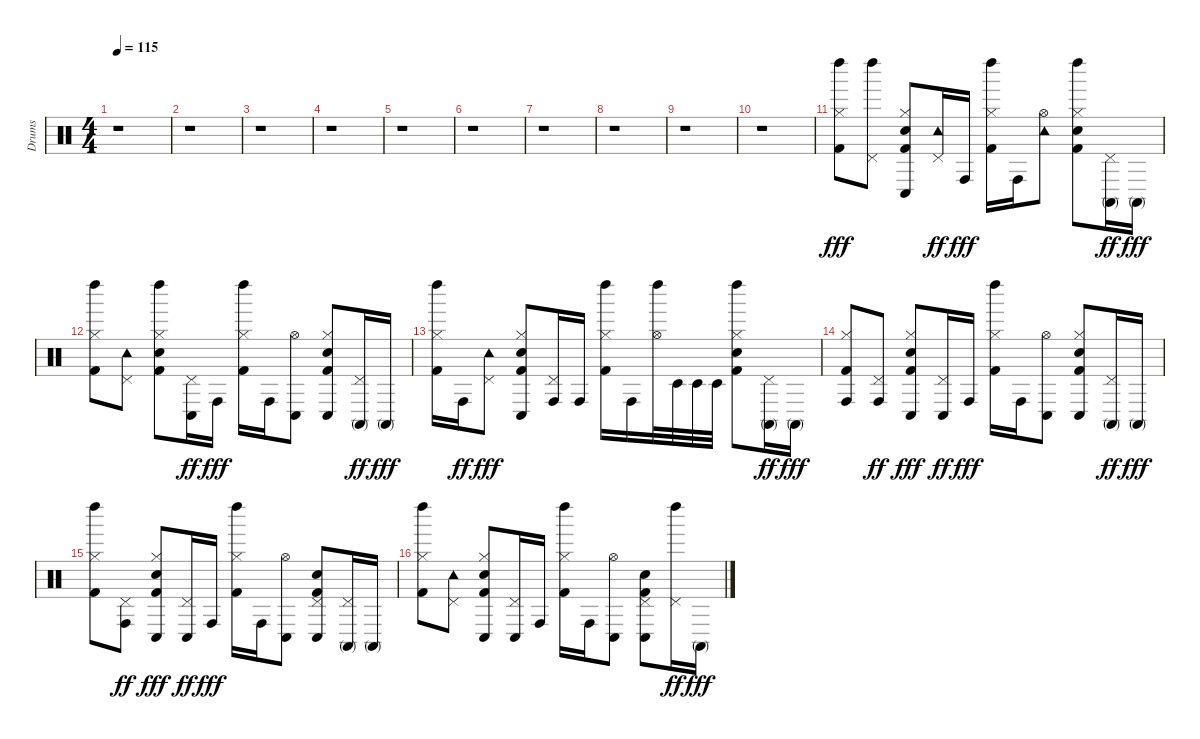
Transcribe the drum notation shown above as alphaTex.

\track ("Drums" "Drums") {instrument percussion}
\staff {score}
\articulation defaults
\ts (4 4)
\tempo 115
\clef neutral
\ks c
r.1{dy fff} |
r.1 |
r.1 |
r.1 |
r.1 |
r.1 |
r.1 |
r.1 |
r.1 |
r.1 |
("Left Maraca (hit)" "Hi-Hat (closed)" "Kick (hit) 2").8 ("Left Maraca (hit)" "Pedal Hi-Hat (hit)").8 ("Conga low (hit)" "Hi-Hat (closed)" "Snare (hit) 2" "Kick (hit) 2").8 ("Pedal Hi-Hat (hit)" "Tambourine (hit)").16{dy ff} "Conga high (hit)".16{dy fff} ("Left Maraca (hit)" "Hi-Hat (closed)" "Kick (hit) 2").16 "Conga high (hit)".16 ("Hi-Hat (open)" "Tambourine (hit)").8 ("Left Maraca (hit)" "Hi-Hat (closed)" "Snare (hit) 2" "Kick (hit) 2").8 ("Conga high (mute)" "Pedal Hi-Hat (hit)").16{dy ff} "Conga high (mute)".16{dy fff} |
("Left Maraca (hit)" "Hi-Hat (closed)" "Kick (hit) 2").8 ("Pedal Hi-Hat (hit)" "Tambourine (hit)").8 ("Left Maraca (hit)" "Hi-Hat (closed)" "Snare (hit) 2" "Kick (hit) 2").8 ("Conga low (hit)" "Pedal Hi-Hat (hit)").16{dy ff} "Conga high (hit)".16{dy fff} ("Left Maraca (hit)" "Hi-Hat (closed)" "Kick (hit) 2").16 "Conga high (hit)".16 ("Conga low (hit)" "Hi-Hat (open)").8 ("Conga low (hit)" "Hi-Hat (closed)" "Snare (hit) 2" "Kick (hit) 2").8 ("Conga high (mute)" "Pedal Hi-Hat (hit)").16{dy ff} "Conga high (mute)".16{dy fff} |
("Left Maraca (hit)" "Hi-Hat (closed)" "Kick (hit) 2").16 "Conga high (hit)".16{dy ff} ("Pedal Hi-Hat (hit)" "Tambourine (hit)").8{dy fff} ("Conga low (hit)" "Hi-Hat (closed)" "Snare (hit) 2" "Kick (hit) 2").8 ("Conga high (hit)" "Pedal Hi-Hat (hit)").16 "Conga high (hit)".16 ("Left Maraca (hit)" "Hi-Hat (closed)" "Kick (hit) 2").16 "Conga high (hit)".16 ("Left Maraca (hit)" "Hi-Hat (open)").32 "Timbale low (hit)".32 "Timbale low (hit)".32 "Timbale low (hit)".32 ("Left Maraca (hit)" "Hi-Hat (closed)" "Snare (hit) 2" "Kick (hit) 2").8 ("Conga high (mute)" "Pedal Hi-Hat (hit)").16{dy ff} "Conga high (mute)".16{dy fff} |
("Conga high (hit)" "Hi-Hat (closed)" "Kick (hit) 2").8 ("Conga high (hit)" "Pedal Hi-Hat (hit)").8{dy ff} ("Conga low (hit)" "Hi-Hat (closed)" "Snare (hit) 2" "Kick (hit) 2").8{dy fff} ("Conga low (hit)" "Pedal Hi-Hat (hit)").16{dy ff} "Conga high (hit)".16{dy fff} ("Left Maraca (hit)" "Hi-Hat (closed)" "Kick (hit) 2").16 "Conga high (hit)".16 ("Conga low (hit)" "Hi-Hat (open)").8 ("Conga low (hit)" "Hi-Hat (closed)" "Snare (hit) 2" "Kick (hit) 2").8 ("Conga high (mute)" "Pedal Hi-Hat (hit)").16{dy ff} "Conga high (mute)".16{dy fff} |
("Left Maraca (hit)" "Hi-Hat (closed)" "Kick (hit) 2").8 ("Conga high (hit)" "Pedal Hi-Hat (hit)").8{dy ff} ("Conga low (hit)" "Hi-Hat (closed)" "Snare (hit) 2" "Kick (hit) 2").8{dy fff} ("Conga low (hit)" "Pedal Hi-Hat (hit)").16{dy ff} "Conga high (hit)".16{dy fff} ("Left Maraca (hit)" "Hi-Hat (closed)" "Kick (hit) 2").16 "Conga high (hit)".16 ("Conga low (hit)" "Hi-Hat (open)").8 ("Conga low (hit)" "Pedal Hi-Hat (hit)" "Snare (hit) 2" "Kick (hit) 2").8 ("Conga high (mute)" "Pedal Hi-Hat (hit)").16 "Conga high (mute)".16 |
("Left Maraca (hit)" "Hi-Hat (closed)" "Kick (hit) 2").8 ("Pedal Hi-Hat (hit)" "Tambourine (hit)").8 ("Conga low (hit)" "Hi-Hat (closed)" "Snare (hit) 2" "Kick (hit) 2").8 ("Conga low (hit)" "Pedal Hi-Hat (hit)").16 "Conga high (hit)".16 ("Left Maraca (hit)" "Hi-Hat (closed)" "Kick (hit) 2").16 "Conga high (hit)".16 ("Conga low (hit)" "Hi-Hat (open)").8 ("Conga low (hit)" "Pedal Hi-Hat (hit)" "Snare (hit) 2" "Kick (hit) 2").8 ("Left Maraca (hit)" "Pedal Hi-Hat (hit)").16{dy ff} "Conga high (mute)".16{dy fff}
